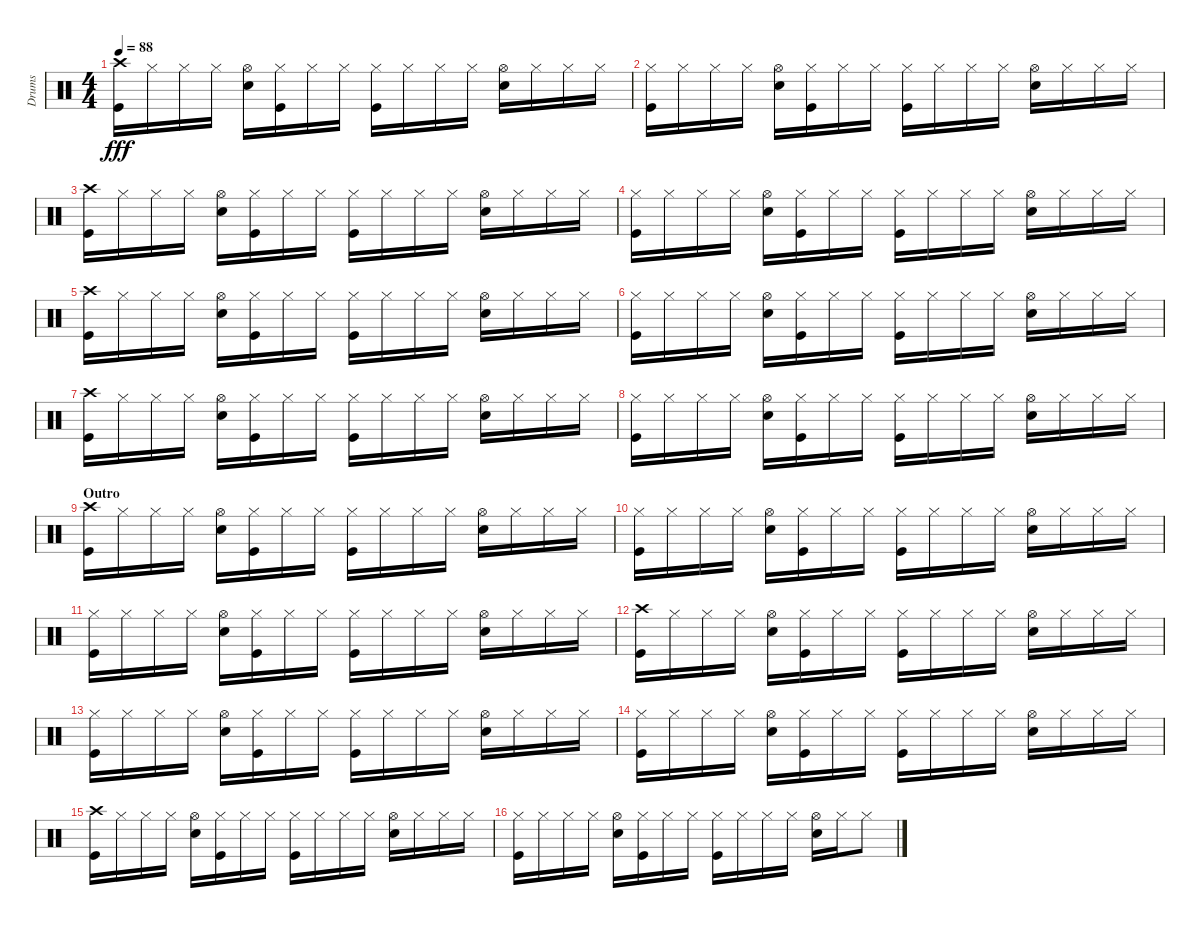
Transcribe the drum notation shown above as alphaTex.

\track ("Drums" "Drums") {instrument percussion}
\staff {score}
\articulation defaults
\ts (4 4)
\tempo 88
\clef neutral
\ks c
("Crash high (hit)" "Kick (hit)").16{dy fff} "Hi-Hat (closed)".16 "Hi-Hat (closed)".16 "Hi-Hat (closed)".16 ("Hi-Hat (open)" "Snare (hit) 2").16 ("Hi-Hat (closed)" "Kick (hit)").16 "Hi-Hat (closed)".16 "Hi-Hat (closed)".16 ("Hi-Hat (closed)" "Kick (hit)").16 "Hi-Hat (closed)".16 "Hi-Hat (closed)".16 "Hi-Hat (closed)".16 ("Hi-Hat (open)" "Snare (hit) 2").16 "Hi-Hat (closed)".16 "Hi-Hat (closed)".16 "Hi-Hat (closed)".16 |
("Hi-Hat (closed)" "Kick (hit)").16 "Hi-Hat (closed)".16 "Hi-Hat (closed)".16 "Hi-Hat (closed)".16 ("Hi-Hat (open)" "Snare (hit) 2").16 ("Hi-Hat (closed)" "Kick (hit)").16 "Hi-Hat (closed)".16 "Hi-Hat (closed)".16 ("Hi-Hat (closed)" "Kick (hit)").16 "Hi-Hat (closed)".16 "Hi-Hat (closed)".16 "Hi-Hat (closed)".16 ("Hi-Hat (open)" "Snare (hit) 2").16 "Hi-Hat (closed)".16 "Hi-Hat (closed)".16 "Hi-Hat (closed)".16 |
("Crash high (hit)" "Kick (hit)").16 "Hi-Hat (closed)".16 "Hi-Hat (closed)".16 "Hi-Hat (closed)".16 ("Hi-Hat (open)" "Snare (hit) 2").16 ("Hi-Hat (closed)" "Kick (hit)").16 "Hi-Hat (closed)".16 "Hi-Hat (closed)".16 ("Hi-Hat (closed)" "Kick (hit)").16 "Hi-Hat (closed)".16 "Hi-Hat (closed)".16 "Hi-Hat (closed)".16 ("Hi-Hat (open)" "Snare (hit) 2").16 "Hi-Hat (closed)".16 "Hi-Hat (closed)".16 "Hi-Hat (closed)".16 |
("Hi-Hat (closed)" "Kick (hit)").16 "Hi-Hat (closed)".16 "Hi-Hat (closed)".16 "Hi-Hat (closed)".16 ("Hi-Hat (open)" "Snare (hit) 2").16 ("Hi-Hat (closed)" "Kick (hit)").16 "Hi-Hat (closed)".16 "Hi-Hat (closed)".16 ("Hi-Hat (closed)" "Kick (hit)").16 "Hi-Hat (closed)".16 "Hi-Hat (closed)".16 "Hi-Hat (closed)".16 ("Hi-Hat (open)" "Snare (hit) 2").16 "Hi-Hat (closed)".16 "Hi-Hat (closed)".16 "Hi-Hat (closed)".16 |
("Crash high (hit)" "Kick (hit)").16 "Hi-Hat (closed)".16 "Hi-Hat (closed)".16 "Hi-Hat (closed)".16 ("Hi-Hat (open)" "Snare (hit) 2").16 ("Hi-Hat (closed)" "Kick (hit)").16 "Hi-Hat (closed)".16 "Hi-Hat (closed)".16 ("Hi-Hat (closed)" "Kick (hit)").16 "Hi-Hat (closed)".16 "Hi-Hat (closed)".16 "Hi-Hat (closed)".16 ("Hi-Hat (open)" "Snare (hit) 2").16 "Hi-Hat (closed)".16 "Hi-Hat (closed)".16 "Hi-Hat (closed)".16 |
("Hi-Hat (closed)" "Kick (hit)").16 "Hi-Hat (closed)".16 "Hi-Hat (closed)".16 "Hi-Hat (closed)".16 ("Hi-Hat (open)" "Snare (hit) 2").16 ("Hi-Hat (closed)" "Kick (hit)").16 "Hi-Hat (closed)".16 "Hi-Hat (closed)".16 ("Hi-Hat (closed)" "Kick (hit)").16 "Hi-Hat (closed)".16 "Hi-Hat (closed)".16 "Hi-Hat (closed)".16 ("Hi-Hat (open)" "Snare (hit) 2").16 "Hi-Hat (closed)".16 "Hi-Hat (closed)".16 "Hi-Hat (closed)".16 |
("Crash high (hit)" "Kick (hit)").16 "Hi-Hat (closed)".16 "Hi-Hat (closed)".16 "Hi-Hat (closed)".16 ("Hi-Hat (open)" "Snare (hit) 2").16 ("Hi-Hat (closed)" "Kick (hit)").16 "Hi-Hat (closed)".16 "Hi-Hat (closed)".16 ("Hi-Hat (closed)" "Kick (hit)").16 "Hi-Hat (closed)".16 "Hi-Hat (closed)".16 "Hi-Hat (closed)".16 ("Hi-Hat (open)" "Snare (hit) 2").16 "Hi-Hat (closed)".16 "Hi-Hat (closed)".16 "Hi-Hat (closed)".16 |
("Hi-Hat (closed)" "Kick (hit)").16 "Hi-Hat (closed)".16 "Hi-Hat (closed)".16 "Hi-Hat (closed)".16 ("Hi-Hat (open)" "Snare (hit) 2").16 ("Hi-Hat (closed)" "Kick (hit)").16 "Hi-Hat (closed)".16 "Hi-Hat (closed)".16 ("Hi-Hat (closed)" "Kick (hit)").16 "Hi-Hat (closed)".16 "Hi-Hat (closed)".16 "Hi-Hat (closed)".16 ("Hi-Hat (open)" "Snare (hit) 2").16 "Hi-Hat (closed)".16 "Hi-Hat (closed)".16 "Hi-Hat (closed)".16 |
\section ("" "Outro")
("Crash high (hit)" "Kick (hit)").16 "Hi-Hat (closed)".16 "Hi-Hat (closed)".16 "Hi-Hat (closed)".16 ("Hi-Hat (open)" "Snare (hit) 2").16 ("Hi-Hat (closed)" "Kick (hit)").16 "Hi-Hat (closed)".16 "Hi-Hat (closed)".16 ("Hi-Hat (closed)" "Kick (hit)").16 "Hi-Hat (closed)".16 "Hi-Hat (closed)".16 "Hi-Hat (closed)".16 ("Hi-Hat (open)" "Snare (hit) 2").16 "Hi-Hat (closed)".16 "Hi-Hat (closed)".16 "Hi-Hat (closed)".16 |
("Hi-Hat (closed)" "Kick (hit)").16 "Hi-Hat (closed)".16 "Hi-Hat (closed)".16 "Hi-Hat (closed)".16 ("Hi-Hat (open)" "Snare (hit) 2").16 ("Hi-Hat (closed)" "Kick (hit)").16 "Hi-Hat (closed)".16 "Hi-Hat (closed)".16 ("Hi-Hat (closed)" "Kick (hit)").16 "Hi-Hat (closed)".16 "Hi-Hat (closed)".16 "Hi-Hat (closed)".16 ("Hi-Hat (open)" "Snare (hit) 2").16 "Hi-Hat (closed)".16 "Hi-Hat (closed)".16 "Hi-Hat (closed)".16 |
("Hi-Hat (closed)" "Kick (hit)").16 "Hi-Hat (closed)".16 "Hi-Hat (closed)".16 "Hi-Hat (closed)".16 ("Hi-Hat (open)" "Snare (hit) 2").16 ("Hi-Hat (closed)" "Kick (hit)").16 "Hi-Hat (closed)".16 "Hi-Hat (closed)".16 ("Hi-Hat (closed)" "Kick (hit)").16 "Hi-Hat (closed)".16 "Hi-Hat (closed)".16 "Hi-Hat (closed)".16 ("Hi-Hat (open)" "Snare (hit) 2").16 "Hi-Hat (closed)".16 "Hi-Hat (closed)".16 "Hi-Hat (closed)".16 |
("Crash high (hit)" "Kick (hit)").16 "Hi-Hat (closed)".16 "Hi-Hat (closed)".16 "Hi-Hat (closed)".16 ("Hi-Hat (open)" "Snare (hit) 2").16 ("Hi-Hat (closed)" "Kick (hit)").16 "Hi-Hat (closed)".16 "Hi-Hat (closed)".16 ("Hi-Hat (closed)" "Kick (hit)").16 "Hi-Hat (closed)".16 "Hi-Hat (closed)".16 "Hi-Hat (closed)".16 ("Hi-Hat (open)" "Snare (hit) 2").16 "Hi-Hat (closed)".16 "Hi-Hat (closed)".16 "Hi-Hat (closed)".16 |
("Hi-Hat (closed)" "Kick (hit)").16 "Hi-Hat (closed)".16 "Hi-Hat (closed)".16 "Hi-Hat (closed)".16 ("Hi-Hat (open)" "Snare (hit) 2").16 ("Hi-Hat (closed)" "Kick (hit)").16 "Hi-Hat (closed)".16 "Hi-Hat (closed)".16 ("Hi-Hat (closed)" "Kick (hit)").16 "Hi-Hat (closed)".16 "Hi-Hat (closed)".16 "Hi-Hat (closed)".16 ("Hi-Hat (open)" "Snare (hit) 2").16 "Hi-Hat (closed)".16 "Hi-Hat (closed)".16 "Hi-Hat (closed)".16 |
("Hi-Hat (closed)" "Kick (hit)").16 "Hi-Hat (closed)".16 "Hi-Hat (closed)".16 "Hi-Hat (closed)".16 ("Hi-Hat (open)" "Snare (hit) 2").16 ("Hi-Hat (closed)" "Kick (hit)").16 "Hi-Hat (closed)".16 "Hi-Hat (closed)".16 ("Hi-Hat (closed)" "Kick (hit)").16 "Hi-Hat (closed)".16 "Hi-Hat (closed)".16 "Hi-Hat (closed)".16 ("Hi-Hat (open)" "Snare (hit) 2").16 "Hi-Hat (closed)".16 "Hi-Hat (closed)".16 "Hi-Hat (closed)".16 |
("Crash high (hit)" "Kick (hit)").16 "Hi-Hat (closed)".16 "Hi-Hat (closed)".16 "Hi-Hat (closed)".16 ("Hi-Hat (open)" "Snare (hit) 2").16 ("Hi-Hat (closed)" "Kick (hit)").16 "Hi-Hat (closed)".16 "Hi-Hat (closed)".16 ("Hi-Hat (closed)" "Kick (hit)").16 "Hi-Hat (closed)".16 "Hi-Hat (closed)".16 "Hi-Hat (closed)".16 ("Hi-Hat (open)" "Snare (hit) 2").16 "Hi-Hat (closed)".16 "Hi-Hat (closed)".16 "Hi-Hat (closed)".16 |
("Hi-Hat (closed)" "Kick (hit)").16 "Hi-Hat (closed)".16 "Hi-Hat (closed)".16 "Hi-Hat (closed)".16 ("Hi-Hat (open)" "Snare (hit) 2").16 ("Hi-Hat (closed)" "Kick (hit)").16 "Hi-Hat (closed)".16 "Hi-Hat (closed)".16 ("Hi-Hat (closed)" "Kick (hit)").16 "Hi-Hat (closed)".16 "Hi-Hat (closed)".16 "Hi-Hat (closed)".16 ("Hi-Hat (open)" "Snare (hit) 2").16 "Hi-Hat (closed)".16 "Hi-Hat (closed)".8
